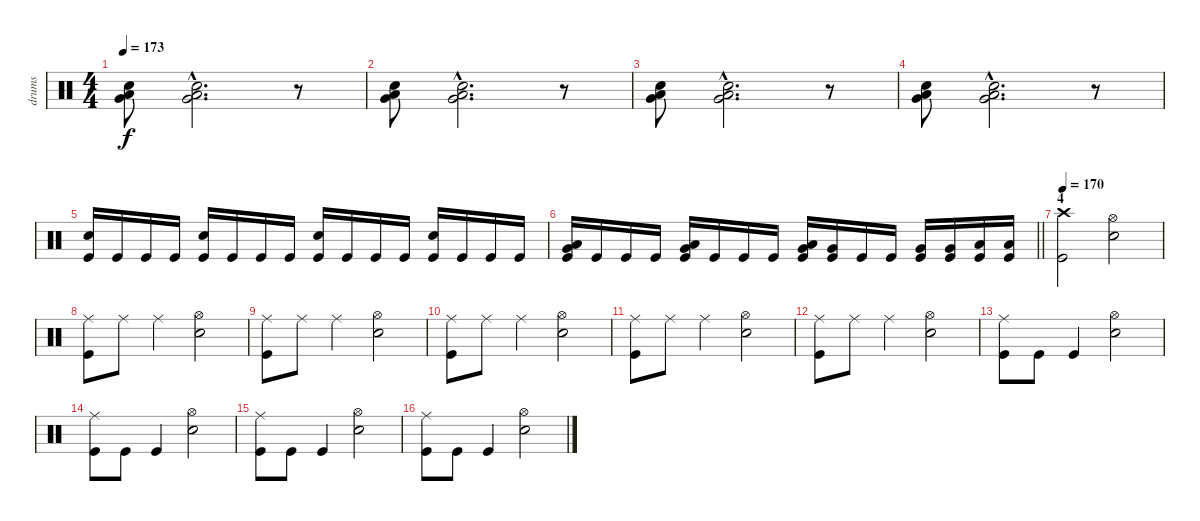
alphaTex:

\track ("drums" "drums") {instrument percussion}
\staff {score}
\articulation defaults
\ts (4 4)
\section ("" "")
\tempo 173
\clef neutral
\ks c
("Electric Snare (hit)" "Very Low Tom (hit)" "Low Floor Tom (hit)").8{dy f} ("Electric Snare (hit)"{hac} "Very Low Tom (hit)"{hac} "Low Floor Tom (hit)"{hac}).2{d} r.8 |
("Electric Snare (hit)" "Very Low Tom (hit)" "Low Floor Tom (hit)").8 ("Electric Snare (hit)"{hac} "Very Low Tom (hit)"{hac} "Low Floor Tom (hit)"{hac}).2{d} r.8 |
("Electric Snare (hit)" "Very Low Tom (hit)" "Low Floor Tom (hit)").8 ("Electric Snare (hit)"{hac} "Very Low Tom (hit)"{hac} "Low Floor Tom (hit)"{hac}).2{d} r.8 |
("Electric Snare (hit)" "Very Low Tom (hit)" "Low Floor Tom (hit)").8 ("Electric Snare (hit)"{hac} "Very Low Tom (hit)"{hac} "Low Floor Tom (hit)"{hac}).2{d} r.8 |
("Kick (hit)" "Electric Snare (hit)").16 "Kick (hit)".16 "Kick (hit)".16 "Kick (hit)".16 ("Kick (hit)" "Electric Snare (hit)").16 "Kick (hit)".16 "Kick (hit)".16 "Kick (hit)".16 ("Kick (hit)" "Electric Snare (hit)").16 "Kick (hit)".16 "Kick (hit)".16 "Kick (hit)".16 ("Kick (hit)" "Electric Snare (hit)").16 "Kick (hit)".16 "Kick (hit)".16 "Kick (hit)".16 |
\barLineRight lightlight
("Kick (hit)" "Very Low Tom (hit)" "Low Floor Tom (hit)").16 "Kick (hit)".16 "Kick (hit)".16 "Kick (hit)".16 ("Kick (hit)" "Very Low Tom (hit)" "Low Floor Tom (hit)").16 "Kick (hit)".16 "Kick (hit)".16 "Kick (hit)".16 ("Kick (hit)" "Very Low Tom (hit)" "Low Floor Tom (hit)").16 ("Kick (hit)" "Very Low Tom (hit)").16 "Kick (hit)".16 "Kick (hit)".16 ("Kick (hit)" "Very Low Tom (hit)").16 ("Kick (hit)" "Very Low Tom (hit)").16 ("Kick (hit)" "Low Floor Tom (hit)").16 ("Kick (hit)" "Low Floor Tom (hit)").16 |
\section ("" "4")
\tempo 170
("Kick (hit)" "Crash high (hit)").2 ("Electric Snare (hit)" "Hi-Hat (open)").2 |
("Kick (hit)" "Ride (middle)").8 "Ride (middle)".8 "Ride (middle)".4 ("Electric Snare (hit)" "Hi-Hat (open)").2 |
("Kick (hit)" "Ride (middle)").8 "Ride (middle)".8 "Ride (middle)".4 ("Electric Snare (hit)" "Hi-Hat (open)").2 |
("Kick (hit)" "Ride (middle)").8 "Ride (middle)".8 "Ride (middle)".4 ("Electric Snare (hit)" "Hi-Hat (open)").2 |
("Kick (hit)" "Ride (middle)").8 "Ride (middle)".8 "Ride (middle)".4 ("Electric Snare (hit)" "Hi-Hat (open)").2 |
("Kick (hit)" "Ride (middle)").8 "Ride (middle)".8 "Ride (middle)".4 ("Electric Snare (hit)" "Hi-Hat (open)").2 |
("Kick (hit)" "Ride (middle)").8 "Kick (hit)".8 "Kick (hit)".4 ("Electric Snare (hit)" "Hi-Hat (open)").2 |
("Kick (hit)" "Ride (middle)").8 "Kick (hit)".8 "Kick (hit)".4 ("Electric Snare (hit)" "Hi-Hat (open)").2 |
("Kick (hit)" "Ride (middle)").8 "Kick (hit)".8 "Kick (hit)".4 ("Electric Snare (hit)" "Hi-Hat (open)").2 |
("Kick (hit)" "Ride (middle)").8 "Kick (hit)".8 "Kick (hit)".4 ("Electric Snare (hit)" "Hi-Hat (open)").2
